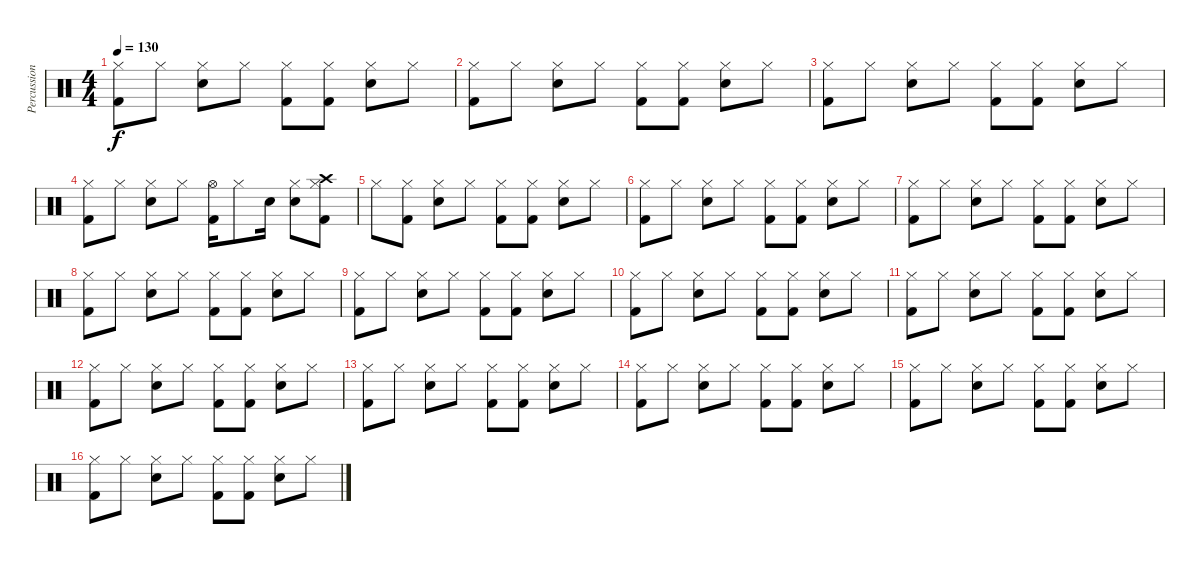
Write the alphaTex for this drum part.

\track ("Percussion" "Percussion") {instrument percussion}
\staff {score}
\articulation defaults
\ts (4 4)
\tempo 130
\clef neutral
\ks c
("Hi-Hat (closed)" "Kick (hit) 2").8{dy f} "Hi-Hat (closed)".8 ("Hi-Hat (closed)" "Metronome (bell)").8 "Hi-Hat (closed)".8 ("Hi-Hat (closed)" "Kick (hit) 2").8 ("Hi-Hat (closed)" "Kick (hit) 2").8 ("Hi-Hat (closed)" "Metronome (bell)").8 "Hi-Hat (closed)".8 |
("Hi-Hat (closed)" "Kick (hit) 2").8 "Hi-Hat (closed)".8 ("Hi-Hat (closed)" "Metronome (bell)").8 "Hi-Hat (closed)".8 ("Hi-Hat (closed)" "Kick (hit) 2").8 ("Hi-Hat (closed)" "Kick (hit) 2").8 ("Hi-Hat (closed)" "Metronome (bell)").8 "Hi-Hat (closed)".8 |
("Hi-Hat (closed)" "Kick (hit) 2").8 "Hi-Hat (closed)".8 ("Hi-Hat (closed)" "Metronome (bell)").8 "Hi-Hat (closed)".8 ("Hi-Hat (closed)" "Kick (hit) 2").8 ("Hi-Hat (closed)" "Kick (hit) 2").8 ("Hi-Hat (closed)" "Metronome (bell)").8 "Hi-Hat (closed)".8 |
("Hi-Hat (closed)" "Kick (hit) 2").8 "Hi-Hat (closed)".8 ("Hi-Hat (closed)" "Metronome (bell)").8 "Hi-Hat (closed)".8 ("Hi-Hat (open)" "Kick (hit) 2").16 "Hi-Hat (closed)".8 "Metronome (bell)".16 ("Hi-Hat (closed)" "Metronome (bell)").8 ("Hi-Hat (closed)" "Crash high (hit)" "Kick (hit) 2").8 |
"Hi-Hat (closed)".8 ("Hi-Hat (closed)" "Kick (hit) 2").8 ("Hi-Hat (closed)" "Metronome (bell)").8 "Hi-Hat (closed)".8 ("Hi-Hat (closed)" "Kick (hit) 2").8 ("Hi-Hat (closed)" "Kick (hit) 2").8 ("Hi-Hat (closed)" "Metronome (bell)").8 "Hi-Hat (closed)".8 |
("Hi-Hat (closed)" "Kick (hit) 2").8 "Hi-Hat (closed)".8 ("Hi-Hat (closed)" "Metronome (bell)").8 "Hi-Hat (closed)".8 ("Hi-Hat (closed)" "Kick (hit) 2").8 ("Hi-Hat (closed)" "Kick (hit) 2").8 ("Hi-Hat (closed)" "Metronome (bell)").8 "Hi-Hat (closed)".8 |
("Hi-Hat (closed)" "Kick (hit) 2").8 "Hi-Hat (closed)".8 ("Hi-Hat (closed)" "Metronome (bell)").8 "Hi-Hat (closed)".8 ("Hi-Hat (closed)" "Kick (hit) 2").8 ("Hi-Hat (closed)" "Kick (hit) 2").8 ("Hi-Hat (closed)" "Metronome (bell)").8 "Hi-Hat (closed)".8 |
("Hi-Hat (closed)" "Kick (hit) 2").8 "Hi-Hat (closed)".8 ("Hi-Hat (closed)" "Metronome (bell)").8 "Hi-Hat (closed)".8 ("Hi-Hat (closed)" "Kick (hit) 2").8 ("Hi-Hat (closed)" "Kick (hit) 2").8 ("Hi-Hat (closed)" "Metronome (bell)").8 "Hi-Hat (closed)".8 |
("Hi-Hat (closed)" "Kick (hit) 2").8 "Hi-Hat (closed)".8 ("Hi-Hat (closed)" "Metronome (bell)").8 "Hi-Hat (closed)".8 ("Hi-Hat (closed)" "Kick (hit) 2").8 ("Hi-Hat (closed)" "Kick (hit) 2").8 ("Hi-Hat (closed)" "Metronome (bell)").8 "Hi-Hat (closed)".8 |
("Hi-Hat (closed)" "Kick (hit) 2").8 "Hi-Hat (closed)".8 ("Hi-Hat (closed)" "Metronome (bell)").8 "Hi-Hat (closed)".8 ("Hi-Hat (closed)" "Kick (hit) 2").8 ("Hi-Hat (closed)" "Kick (hit) 2").8 ("Hi-Hat (closed)" "Metronome (bell)").8 "Hi-Hat (closed)".8 |
("Hi-Hat (closed)" "Kick (hit) 2").8 "Hi-Hat (closed)".8 ("Hi-Hat (closed)" "Metronome (bell)").8 "Hi-Hat (closed)".8 ("Hi-Hat (closed)" "Kick (hit) 2").8 ("Hi-Hat (closed)" "Kick (hit) 2").8 ("Hi-Hat (closed)" "Metronome (bell)").8 "Hi-Hat (closed)".8 |
("Hi-Hat (closed)" "Kick (hit) 2").8 "Hi-Hat (closed)".8 ("Hi-Hat (closed)" "Metronome (bell)").8 "Hi-Hat (closed)".8 ("Hi-Hat (closed)" "Kick (hit) 2").8 ("Hi-Hat (closed)" "Kick (hit) 2").8 ("Hi-Hat (closed)" "Metronome (bell)").8 "Hi-Hat (closed)".8 |
("Hi-Hat (closed)" "Kick (hit) 2").8 "Hi-Hat (closed)".8 ("Hi-Hat (closed)" "Metronome (bell)").8 "Hi-Hat (closed)".8 ("Hi-Hat (closed)" "Kick (hit) 2").8 ("Hi-Hat (closed)" "Kick (hit) 2").8 ("Hi-Hat (closed)" "Metronome (bell)").8 "Hi-Hat (closed)".8 |
("Hi-Hat (closed)" "Kick (hit) 2").8 "Hi-Hat (closed)".8 ("Hi-Hat (closed)" "Metronome (bell)").8 "Hi-Hat (closed)".8 ("Hi-Hat (closed)" "Kick (hit) 2").8 ("Hi-Hat (closed)" "Kick (hit) 2").8 ("Hi-Hat (closed)" "Metronome (bell)").8 "Hi-Hat (closed)".8 |
("Hi-Hat (closed)" "Kick (hit) 2").8 "Hi-Hat (closed)".8 ("Hi-Hat (closed)" "Metronome (bell)").8 "Hi-Hat (closed)".8 ("Hi-Hat (closed)" "Kick (hit) 2").8 ("Hi-Hat (closed)" "Kick (hit) 2").8 ("Hi-Hat (closed)" "Metronome (bell)").8 "Hi-Hat (closed)".8 |
("Hi-Hat (closed)" "Kick (hit) 2").8 "Hi-Hat (closed)".8 ("Hi-Hat (closed)" "Metronome (bell)").8 "Hi-Hat (closed)".8 ("Hi-Hat (closed)" "Kick (hit) 2").8 ("Hi-Hat (closed)" "Kick (hit) 2").8 ("Hi-Hat (closed)" "Metronome (bell)").8 "Hi-Hat (closed)".8
